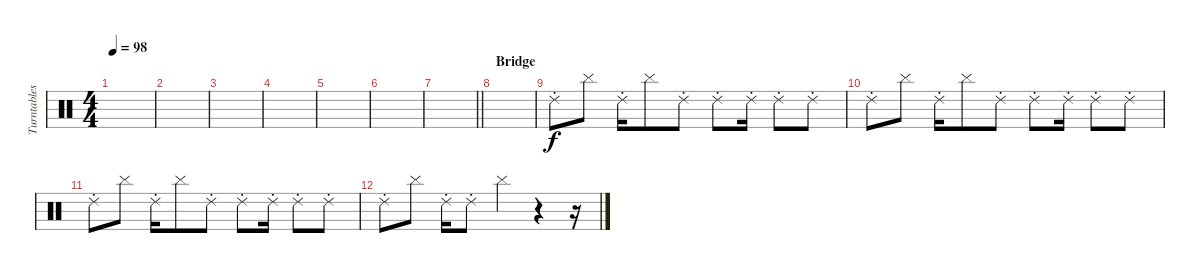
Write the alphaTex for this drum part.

\track ("Turntables - Joe Hahn" "Turntables") {instrument percussion}
\staff {score}
\articulation defaults
\ts (4 4)
\tempo 98
\clef neutral
\ks c
|
|
|
|
|
|
\barLineRight lightlight
|
\section ("" "Bridge")
|
"Ride (choke) 2".8{volume 12} "Cymbal (hit)".8 "Ride (choke) 2".16 "Cymbal (hit)".8 "Ride (choke) 2".8 "Ride (choke) 2".8 "Ride (choke) 2".16 "Ride (choke) 2".8 "Ride (choke) 2".8 |
"Ride (choke) 2".8 "Cymbal (hit)".8 "Ride (choke) 2".16 "Cymbal (hit)".8 "Ride (choke) 2".8 "Ride (choke) 2".8 "Ride (choke) 2".16 "Ride (choke) 2".8 "Ride (choke) 2".8 |
"Ride (choke) 2".8 "Cymbal (hit)".8 "Ride (choke) 2".16 "Cymbal (hit)".8 "Ride (choke) 2".8 "Ride (choke) 2".8 "Ride (choke) 2".16 "Ride (choke) 2".8 "Ride (choke) 2".8 |
"Ride (choke) 2".8 "Cymbal (hit)".8 "Ride (choke) 2".16 "Ride (choke) 2".8 "Cymbal (hit)".4 r.4 r.16
